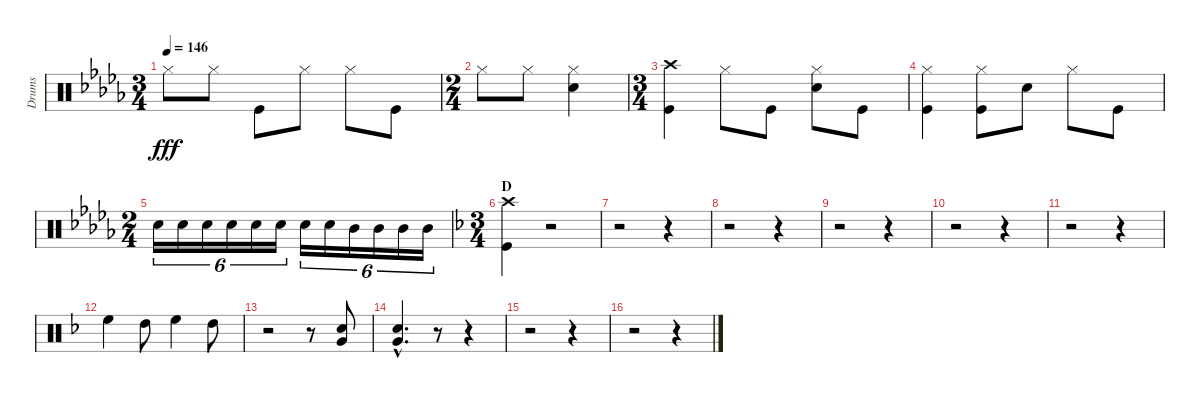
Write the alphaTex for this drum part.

\track ("Drums" "Drums") {instrument percussion}
\staff {score}
\articulation defaults
\ts (3 4)
\tempo 146
\clef neutral
\ks db "Hi-Hat (closed)".8{dy fff} "Hi-Hat (closed)".8 "Kick (hit)".8 "Hi-Hat (closed)".8 "Hi-Hat (closed)".8 "Kick (hit)".8
|
\ts (2 4)
"Hi-Hat (closed)".8 "Hi-Hat (closed)".8 ("Hi-Hat (closed)" "Snare (hit) 2").4 |
\ts (3 4)
("Crash high (hit)" "Kick (hit)").4 "Hi-Hat (closed)".8 "Kick (hit)".8 ("Hi-Hat (closed)" "Snare (hit) 2").8 "Kick (hit)".8 |
("Hi-Hat (closed)" "Kick (hit)").4 ("Hi-Hat (closed)" "Kick (hit)").8 "Snare (hit) 2".8 "Hi-Hat (closed)".8 "Kick (hit)".8 |
\ts (2 4)
"Snare (hit) 2".16{tu (6 4)} "Snare (hit) 2".16{tu (6 4)} "Snare (hit) 2".16{tu (6 4)} "Snare (hit) 2".16{tu (6 4)} "Snare (hit) 2".16{tu (6 4)} "Snare (hit) 2".16{tu (6 4)} "Snare (hit) 2".16{tu (6 4)} "Snare (hit) 2".16{tu (6 4)} "Mid Tom (hit)".16{tu (6 4)} "Mid Tom (hit)".16{tu (6 4)} "Mid Tom (hit)".16{tu (6 4)} "Mid Tom (hit)".16{tu (6 4)} |
\ts (3 4)
\section ("" "D")
\ks f
("Crash high (hit)" "Kick (hit)").4 r.2 |
r.2 r.4 |
r.2 r.4 |
r.2 r.4 |
r.2 r.4 |
r.2 r.4 |
"High Floor Tom (hit)".4 "High Tom (hit)".8 "High Floor Tom (hit)".4 "High Tom (hit)".8 |
r.2 r.8 ("Very Low Tom (hit)" "Snare (hit) 2").8 |
("Very Low Tom (hit)"{hac} "Snare (hit) 2"{hac}).4{d} r.8 r.4 |
r.2 r.4 |
r.2 r.4
